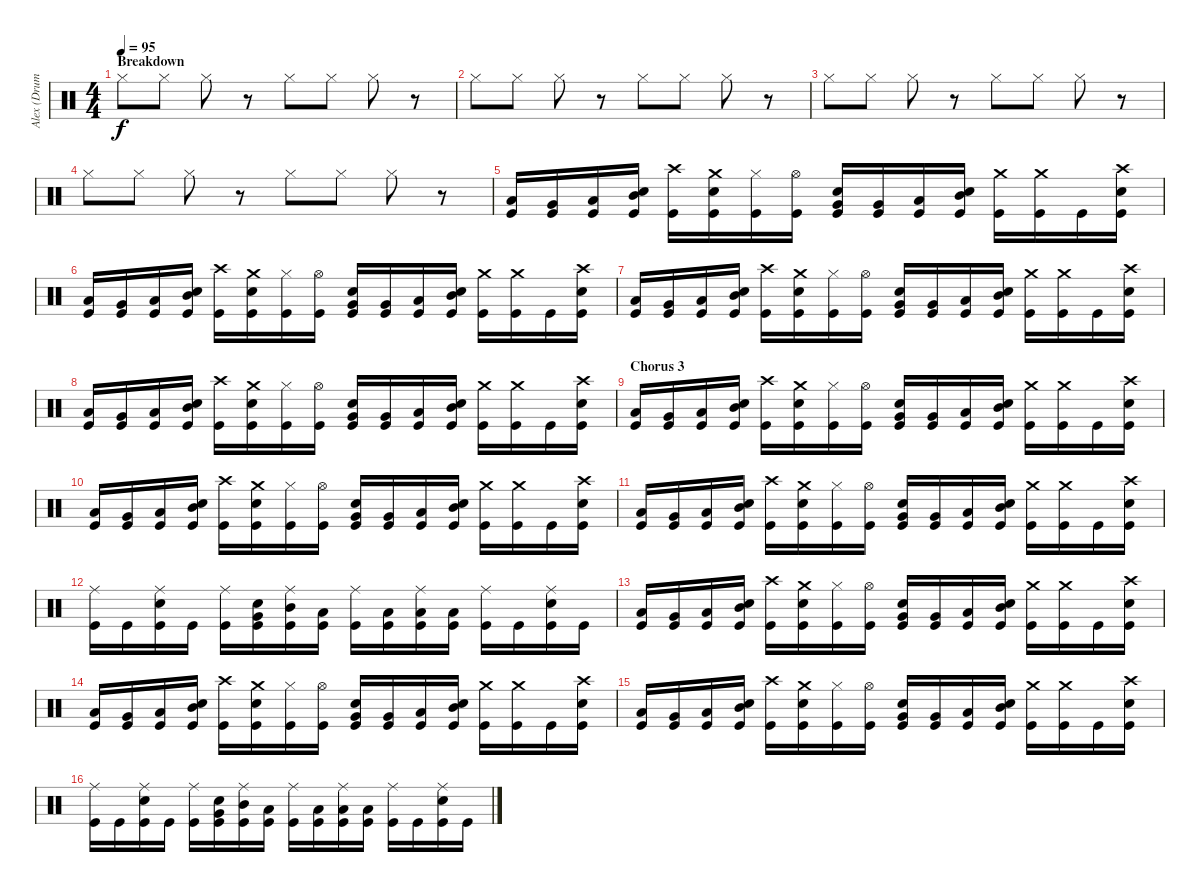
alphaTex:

\track ("Alex (Drums)" "Alex (Drum") {instrument percussion}
\staff {score}
\articulation defaults
\ts (4 4)
\section ("" "Breakdown")
\tempo 95
\clef neutral
\ks c "Hi-Hat (closed)".8{dy f} "Hi-Hat (closed)".8 "Hi-Hat (closed)".8
r.8 "Hi-Hat (closed)".8 "Hi-Hat (closed)".8 "Hi-Hat (closed)".8 r.8 |
"Hi-Hat (closed)".8 "Hi-Hat (closed)".8 "Hi-Hat (closed)".8 r.8 "Hi-Hat (closed)".8 "Hi-Hat (closed)".8 "Hi-Hat (closed)".8 r.8 |
"Hi-Hat (closed)".8 "Hi-Hat (closed)".8 "Hi-Hat (closed)".8 r.8 "Hi-Hat (closed)".8 "Hi-Hat (closed)".8 "Hi-Hat (closed)".8 r.8 |
"Hi-Hat (closed)".8 "Hi-Hat (closed)".8 "Hi-Hat (closed)".8 r.8 "Hi-Hat (closed)".8 "Hi-Hat (closed)".8 "Hi-Hat (closed)".8 r.8 |
("Low Tom (hit)" "Kick (hit)").16 ("Very Low Tom (hit)" "Kick (hit)").16 ("Low Floor Tom (hit)" "Kick (hit)").16 ("Mid Tom (hit)" "Electric Snare (hit)" "Kick (hit)").16 ("Crash high (hit)" "Kick (hit)").16 ("Crash medium (hit)" "Electric Snare (hit)" "Kick (hit)").16 ("Hi-Hat (closed)" "Kick (hit)").16 ("Hi-Hat (open)" "Kick (hit)").16 ("Very Low Tom (hit)" "Electric Snare (hit)" "Kick (hit)").16 ("Very Low Tom (hit)" "Kick (hit)").16 ("Low Tom (hit)" "Kick (hit)").16 ("Mid Tom (hit)" "Electric Snare (hit)" "Kick (hit)").16 ("Crash medium (hit)" "Kick (hit)").16 ("Crash medium (hit)" "Kick (hit)").16 "Kick (hit)".16 ("Crash high (hit)" "Electric Snare (hit)" "Kick (hit)").16 |
("Low Tom (hit)" "Kick (hit)").16 ("Very Low Tom (hit)" "Kick (hit)").16 ("Low Floor Tom (hit)" "Kick (hit)").16 ("Mid Tom (hit)" "Electric Snare (hit)" "Kick (hit)").16 ("Crash high (hit)" "Kick (hit)").16 ("Crash medium (hit)" "Electric Snare (hit)" "Kick (hit)").16 ("Hi-Hat (closed)" "Kick (hit)").16 ("Hi-Hat (open)" "Kick (hit)").16 ("Very Low Tom (hit)" "Electric Snare (hit)" "Kick (hit)").16 ("Very Low Tom (hit)" "Kick (hit)").16 ("Low Tom (hit)" "Kick (hit)").16 ("Mid Tom (hit)" "Electric Snare (hit)" "Kick (hit)").16 ("Crash medium (hit)" "Kick (hit)").16 ("Crash medium (hit)" "Kick (hit)").16 "Kick (hit)".16 ("Crash high (hit)" "Electric Snare (hit)" "Kick (hit)").16 |
("Low Tom (hit)" "Kick (hit)").16 ("Very Low Tom (hit)" "Kick (hit)").16 ("Low Floor Tom (hit)" "Kick (hit)").16 ("Mid Tom (hit)" "Electric Snare (hit)" "Kick (hit)").16 ("Crash high (hit)" "Kick (hit)").16 ("Crash medium (hit)" "Electric Snare (hit)" "Kick (hit)").16 ("Hi-Hat (closed)" "Kick (hit)").16 ("Hi-Hat (open)" "Kick (hit)").16 ("Very Low Tom (hit)" "Electric Snare (hit)" "Kick (hit)").16 ("Very Low Tom (hit)" "Kick (hit)").16 ("Low Tom (hit)" "Kick (hit)").16 ("Mid Tom (hit)" "Electric Snare (hit)" "Kick (hit)").16 ("Crash medium (hit)" "Kick (hit)").16 ("Crash medium (hit)" "Kick (hit)").16 "Kick (hit)".16 ("Crash high (hit)" "Electric Snare (hit)" "Kick (hit)").16 |
("Low Tom (hit)" "Kick (hit)").16 ("Very Low Tom (hit)" "Kick (hit)").16 ("Low Floor Tom (hit)" "Kick (hit)").16 ("Mid Tom (hit)" "Electric Snare (hit)" "Kick (hit)").16 ("Crash high (hit)" "Kick (hit)").16 ("Crash medium (hit)" "Electric Snare (hit)" "Kick (hit)").16 ("Hi-Hat (closed)" "Kick (hit)").16 ("Hi-Hat (open)" "Kick (hit)").16 ("Very Low Tom (hit)" "Electric Snare (hit)" "Kick (hit)").16 ("Very Low Tom (hit)" "Kick (hit)").16 ("Low Tom (hit)" "Kick (hit)").16 ("Mid Tom (hit)" "Electric Snare (hit)" "Kick (hit)").16 ("Crash medium (hit)" "Kick (hit)").16 ("Crash medium (hit)" "Kick (hit)").16 "Kick (hit)".16 ("Crash high (hit)" "Electric Snare (hit)" "Kick (hit)").16 |
\section ("" "Chorus 3")
("Low Tom (hit)" "Kick (hit)").16 ("Very Low Tom (hit)" "Kick (hit)").16 ("Low Floor Tom (hit)" "Kick (hit)").16 ("Mid Tom (hit)" "Electric Snare (hit)" "Kick (hit)").16 ("Crash high (hit)" "Kick (hit)").16 ("Crash medium (hit)" "Electric Snare (hit)" "Kick (hit)").16 ("Hi-Hat (closed)" "Kick (hit)").16 ("Hi-Hat (open)" "Kick (hit)").16 ("Very Low Tom (hit)" "Electric Snare (hit)" "Kick (hit)").16 ("Very Low Tom (hit)" "Kick (hit)").16 ("Low Tom (hit)" "Kick (hit)").16 ("Mid Tom (hit)" "Electric Snare (hit)" "Kick (hit)").16 ("Crash medium (hit)" "Kick (hit)").16 ("Crash medium (hit)" "Kick (hit)").16 "Kick (hit)".16 ("Crash high (hit)" "Electric Snare (hit)" "Kick (hit)").16 |
("Low Tom (hit)" "Kick (hit)").16 ("Very Low Tom (hit)" "Kick (hit)").16 ("Low Floor Tom (hit)" "Kick (hit)").16 ("Mid Tom (hit)" "Electric Snare (hit)" "Kick (hit)").16 ("Crash high (hit)" "Kick (hit)").16 ("Crash medium (hit)" "Electric Snare (hit)" "Kick (hit)").16 ("Hi-Hat (closed)" "Kick (hit)").16 ("Hi-Hat (open)" "Kick (hit)").16 ("Very Low Tom (hit)" "Electric Snare (hit)" "Kick (hit)").16 ("Very Low Tom (hit)" "Kick (hit)").16 ("Low Tom (hit)" "Kick (hit)").16 ("Mid Tom (hit)" "Electric Snare (hit)" "Kick (hit)").16 ("Crash medium (hit)" "Kick (hit)").16 ("Crash medium (hit)" "Kick (hit)").16 "Kick (hit)".16 ("Crash high (hit)" "Electric Snare (hit)" "Kick (hit)").16 |
("Low Tom (hit)" "Kick (hit)").16 ("Very Low Tom (hit)" "Kick (hit)").16 ("Low Floor Tom (hit)" "Kick (hit)").16 ("Mid Tom (hit)" "Electric Snare (hit)" "Kick (hit)").16 ("Crash high (hit)" "Kick (hit)").16 ("Crash medium (hit)" "Electric Snare (hit)" "Kick (hit)").16 ("Hi-Hat (closed)" "Kick (hit)").16 ("Hi-Hat (open)" "Kick (hit)").16 ("Very Low Tom (hit)" "Electric Snare (hit)" "Kick (hit)").16 ("Very Low Tom (hit)" "Kick (hit)").16 ("Low Tom (hit)" "Kick (hit)").16 ("Mid Tom (hit)" "Electric Snare (hit)" "Kick (hit)").16 ("Crash medium (hit)" "Kick (hit)").16 ("Crash medium (hit)" "Kick (hit)").16 "Kick (hit)".16 ("Crash high (hit)" "Electric Snare (hit)" "Kick (hit)").16 |
("Ride (middle)" "Kick (hit)").16 "Kick (hit)".16 ("Ride (middle)" "Electric Snare (hit)" "Kick (hit)").16 "Kick (hit)".16 ("Ride (middle)" "Kick (hit)").16 ("Very Low Tom (hit)" "Electric Snare (hit)" "Kick (hit)").16 ("Ride (middle)" "Mid Tom (hit)" "Kick (hit)").16 ("Low Tom (hit)" "Kick (hit)").16 ("Ride (middle)" "Kick (hit)").16 ("Low Tom (hit)" "Kick (hit)").16 ("Ride (middle)" "Low Tom (hit)" "Kick (hit)").16 ("Low Tom (hit)" "Kick (hit)").16 ("Ride (middle)" "Kick (hit)").16 "Kick (hit)".16 ("Ride (middle)" "Electric Snare (hit)" "Kick (hit)").16 "Kick (hit)".16 |
("Low Tom (hit)" "Kick (hit)").16 ("Very Low Tom (hit)" "Kick (hit)").16 ("Low Floor Tom (hit)" "Kick (hit)").16 ("Mid Tom (hit)" "Electric Snare (hit)" "Kick (hit)").16 ("Crash high (hit)" "Kick (hit)").16 ("Crash medium (hit)" "Electric Snare (hit)" "Kick (hit)").16 ("Hi-Hat (closed)" "Kick (hit)").16 ("Hi-Hat (open)" "Kick (hit)").16 ("Very Low Tom (hit)" "Electric Snare (hit)" "Kick (hit)").16 ("Very Low Tom (hit)" "Kick (hit)").16 ("Low Tom (hit)" "Kick (hit)").16 ("Mid Tom (hit)" "Electric Snare (hit)" "Kick (hit)").16 ("Crash medium (hit)" "Kick (hit)").16 ("Crash medium (hit)" "Kick (hit)").16 "Kick (hit)".16 ("Crash high (hit)" "Electric Snare (hit)" "Kick (hit)").16 |
("Low Tom (hit)" "Kick (hit)").16 ("Very Low Tom (hit)" "Kick (hit)").16 ("Low Floor Tom (hit)" "Kick (hit)").16 ("Mid Tom (hit)" "Electric Snare (hit)" "Kick (hit)").16 ("Crash high (hit)" "Kick (hit)").16 ("Crash medium (hit)" "Electric Snare (hit)" "Kick (hit)").16 ("Hi-Hat (closed)" "Kick (hit)").16 ("Hi-Hat (open)" "Kick (hit)").16 ("Very Low Tom (hit)" "Electric Snare (hit)" "Kick (hit)").16 ("Very Low Tom (hit)" "Kick (hit)").16 ("Low Tom (hit)" "Kick (hit)").16 ("Mid Tom (hit)" "Electric Snare (hit)" "Kick (hit)").16 ("Crash medium (hit)" "Kick (hit)").16 ("Crash medium (hit)" "Kick (hit)").16 "Kick (hit)".16 ("Crash high (hit)" "Electric Snare (hit)" "Kick (hit)").16 |
("Low Tom (hit)" "Kick (hit)").16 ("Very Low Tom (hit)" "Kick (hit)").16 ("Low Floor Tom (hit)" "Kick (hit)").16 ("Mid Tom (hit)" "Electric Snare (hit)" "Kick (hit)").16 ("Crash high (hit)" "Kick (hit)").16 ("Crash medium (hit)" "Electric Snare (hit)" "Kick (hit)").16 ("Hi-Hat (closed)" "Kick (hit)").16 ("Hi-Hat (open)" "Kick (hit)").16 ("Very Low Tom (hit)" "Electric Snare (hit)" "Kick (hit)").16 ("Very Low Tom (hit)" "Kick (hit)").16 ("Low Tom (hit)" "Kick (hit)").16 ("Mid Tom (hit)" "Electric Snare (hit)" "Kick (hit)").16 ("Crash medium (hit)" "Kick (hit)").16 ("Crash medium (hit)" "Kick (hit)").16 "Kick (hit)".16 ("Crash high (hit)" "Electric Snare (hit)" "Kick (hit)").16 |
("Ride (middle)" "Kick (hit)").16 "Kick (hit)".16 ("Ride (middle)" "Electric Snare (hit)" "Kick (hit)").16 "Kick (hit)".16 ("Ride (middle)" "Kick (hit)").16 ("Very Low Tom (hit)" "Electric Snare (hit)" "Kick (hit)").16 ("Ride (middle)" "Mid Tom (hit)" "Kick (hit)").16 ("Low Tom (hit)" "Kick (hit)").16 ("Ride (middle)" "Kick (hit)").16 ("Low Tom (hit)" "Kick (hit)").16 ("Ride (middle)" "Low Tom (hit)" "Kick (hit)").16 ("Low Tom (hit)" "Kick (hit)").16 ("Ride (middle)" "Kick (hit)").16 "Kick (hit)".16 ("Ride (middle)" "Electric Snare (hit)" "Kick (hit)").16 "Kick (hit)".16
